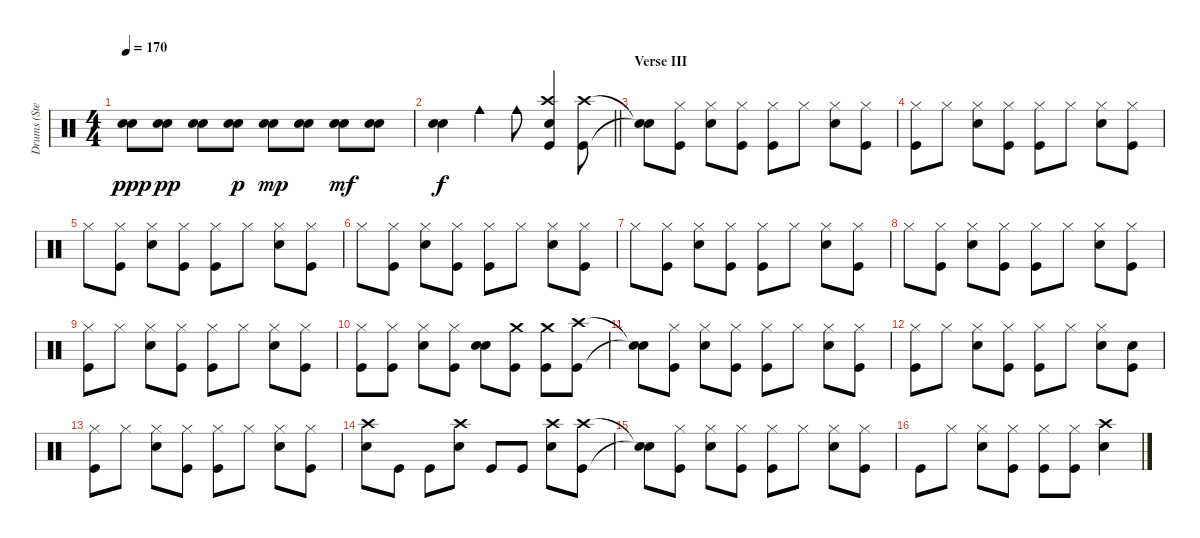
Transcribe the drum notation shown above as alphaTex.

\track ("Drums (Steven)" "Drums (Ste") {instrument percussion}
\staff {score}
\articulation defaults
\ts (4 4)
\tempo 170
\clef neutral
\ks c
("Snare (hit) 2" "Snare (hit) 2").8{dy ppp} ("Snare (hit) 2" "Snare (hit) 2").8{dy pp} ("Snare (hit) 2" "Snare (hit) 2").8 ("Snare (hit) 2" "Snare (hit) 2").8{dy p} ("Snare (hit) 2" "Snare (hit) 2").8{dy mp} ("Snare (hit) 2" "Snare (hit) 2").8 ("Snare (hit) 2" "Snare (hit) 2").8{dy mf} ("Snare (hit) 2" "Snare (hit) 2").8 |
\barLineRight lightlight
("Snare (hit) 2" "Snare (hit) 2").4{dy f} "Cowbell medium (hit)".4 "Cowbell medium (hit)".8 ("Crash high (hit)" "Kick (hit)" "Snare (hit)").4 ("Crash high (hit)" "Kick (hit)").8 |
\section ("" "Verse III")
("Snare (hit)"{t} "Snare (hit)"{t}).8 ("Hi-Hat (closed)" "Kick (hit)").8 ("Hi-Hat (closed)" "Snare (hit) 2").8 ("Hi-Hat (closed)" "Kick (hit)").8 ("Hi-Hat (closed)" "Kick (hit)").8 "Hi-Hat (closed)".8 ("Hi-Hat (closed)" "Snare (hit) 2").8 ("Hi-Hat (closed)" "Kick (hit)").8 |
("Hi-Hat (closed)" "Kick (hit)").8 "Hi-Hat (closed)".8 ("Hi-Hat (closed)" "Snare (hit) 2").8 ("Hi-Hat (closed)" "Kick (hit)").8 ("Hi-Hat (closed)" "Kick (hit)").8 "Hi-Hat (closed)".8 ("Hi-Hat (closed)" "Snare (hit) 2").8 ("Hi-Hat (closed)" "Kick (hit)").8 |
"Hi-Hat (closed)".8 ("Hi-Hat (closed)" "Kick (hit)").8 ("Hi-Hat (closed)" "Snare (hit) 2").8 ("Hi-Hat (closed)" "Kick (hit)").8 ("Hi-Hat (closed)" "Kick (hit)").8 "Hi-Hat (closed)".8 ("Hi-Hat (closed)" "Snare (hit) 2").8 ("Hi-Hat (closed)" "Kick (hit)").8 |
"Hi-Hat (closed)".8 ("Hi-Hat (closed)" "Kick (hit)").8 ("Hi-Hat (closed)" "Snare (hit) 2").8 ("Hi-Hat (closed)" "Kick (hit)").8 ("Hi-Hat (closed)" "Kick (hit)").8 "Hi-Hat (closed)".8 ("Hi-Hat (closed)" "Snare (hit) 2").8 ("Hi-Hat (closed)" "Kick (hit)").8 |
"Hi-Hat (closed)".8 ("Hi-Hat (closed)" "Kick (hit)").8 ("Hi-Hat (closed)" "Snare (hit) 2").8 ("Hi-Hat (closed)" "Kick (hit)").8 ("Hi-Hat (closed)" "Kick (hit)").8 "Hi-Hat (closed)".8 ("Hi-Hat (closed)" "Snare (hit) 2").8 ("Hi-Hat (closed)" "Kick (hit)").8 |
"Hi-Hat (closed)".8 ("Hi-Hat (closed)" "Kick (hit)").8 ("Hi-Hat (closed)" "Snare (hit) 2").8 ("Hi-Hat (closed)" "Kick (hit)").8 ("Hi-Hat (closed)" "Kick (hit)").8 "Hi-Hat (closed)".8 ("Hi-Hat (closed)" "Snare (hit) 2").8 ("Hi-Hat (closed)" "Kick (hit)").8 |
("Hi-Hat (closed)" "Kick (hit)").8 "Hi-Hat (closed)".8 ("Hi-Hat (closed)" "Snare (hit) 2").8 ("Hi-Hat (closed)" "Kick (hit)").8 ("Hi-Hat (closed)" "Kick (hit)").8 "Hi-Hat (closed)".8 ("Hi-Hat (closed)" "Snare (hit) 2").8 ("Hi-Hat (closed)" "Kick (hit)").8 |
("Hi-Hat (closed)" "Kick (hit)").8 ("Hi-Hat (closed)" "Kick (hit)").8 ("Hi-Hat (closed)" "Snare (hit) 2").8 ("Hi-Hat (closed)" "Kick (hit)").8 ("Snare (hit) 2" "Snare (hit) 2").8 ("Crash medium (hit)" "Kick (hit)").8 ("Crash medium (hit)" "Kick (hit)").8 ("Crash high (hit)" "Kick (hit)").8 |
("Snare (hit)"{t} "Snare (hit)"{t}).8 ("Hi-Hat (closed)" "Kick (hit)").8 ("Hi-Hat (closed)" "Snare (hit) 2").8 ("Hi-Hat (closed)" "Kick (hit)").8 ("Hi-Hat (closed)" "Kick (hit)").8 "Hi-Hat (closed)".8 ("Hi-Hat (closed)" "Snare (hit) 2").8 ("Hi-Hat (closed)" "Kick (hit)").8 |
("Hi-Hat (closed)" "Kick (hit)").8 "Hi-Hat (closed)".8 ("Hi-Hat (closed)" "Snare (hit) 2").8 ("Hi-Hat (closed)" "Kick (hit)").8 ("Hi-Hat (closed)" "Kick (hit)").8 "Hi-Hat (closed)".8 ("Hi-Hat (closed)" "Snare (hit) 2").8 ("Snare (hit)" "Kick (hit)").8 |
("Hi-Hat (closed)" "Kick (hit)").8 "Hi-Hat (closed)".8 ("Hi-Hat (closed)" "Snare (hit) 2").8 ("Hi-Hat (closed)" "Kick (hit)").8 ("Hi-Hat (closed)" "Kick (hit)").8 "Hi-Hat (closed)".8 ("Hi-Hat (closed)" "Snare (hit) 2").8 ("Hi-Hat (closed)" "Kick (hit)").8 |
("Crash high (hit)" "Snare (hit) 2").8 "Kick (hit)".8 "Kick (hit)".8 ("Crash high (hit)" "Snare (hit) 2").8 "Kick (hit)".8 "Kick (hit)".8 ("Crash high (hit)" "Snare (hit) 2").8 ("Crash high (hit)" "Kick (hit)").8 |
("Snare (hit)"{t} "Snare (hit)"{t}).8 ("Hi-Hat (closed)" "Kick (hit)").8 ("Hi-Hat (closed)" "Snare (hit) 2").8 ("Hi-Hat (closed)" "Kick (hit)").8 ("Hi-Hat (closed)" "Kick (hit)").8 "Hi-Hat (closed)".8 ("Hi-Hat (closed)" "Snare (hit) 2").8 ("Hi-Hat (closed)" "Kick (hit)").8 |
"Kick (hit)".8 "Hi-Hat (closed)".8 ("Hi-Hat (closed)" "Snare (hit) 2").8 ("Hi-Hat (closed)" "Kick (hit)").8 ("Hi-Hat (closed)" "Kick (hit)").8 ("Hi-Hat (closed)" "Kick (hit)").8 ("Crash high (hit)" "Snare (hit) 2").4
